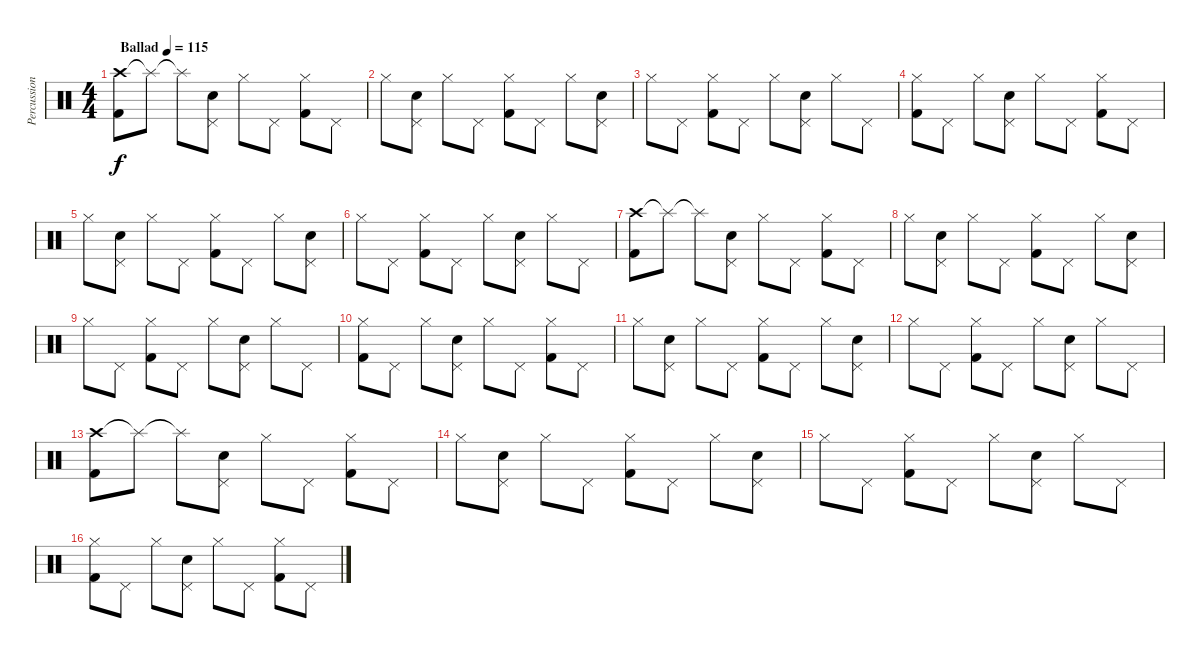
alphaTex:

\track ("Percussion" "Percussion") {instrument percussion}
\staff {score}
\articulation defaults
\ts (4 4)
\tempo (115 "Ballad")
\clef neutral
\ks c
("Crash high (hit)" "Kick (hit) 2").8{dy f} "Splash (hit)"{t}.8 "Splash (hit)"{t}.8 ("Pedal Hi-Hat (hit)" "Electric Snare (hit)").8 "Hi-Hat (closed)".8 "Pedal Hi-Hat (hit)".8 ("Hi-Hat (closed)" "Kick (hit) 2").8 "Pedal Hi-Hat (hit)".8 |
"Hi-Hat (closed)".8 ("Pedal Hi-Hat (hit)" "Electric Snare (hit)").8 "Hi-Hat (closed)".8 "Pedal Hi-Hat (hit)".8 ("Hi-Hat (closed)" "Kick (hit) 2").8 "Pedal Hi-Hat (hit)".8 "Hi-Hat (closed)".8 ("Pedal Hi-Hat (hit)" "Electric Snare (hit)").8 |
"Hi-Hat (closed)".8 "Pedal Hi-Hat (hit)".8 ("Hi-Hat (closed)" "Kick (hit) 2").8 "Pedal Hi-Hat (hit)".8 "Hi-Hat (closed)".8 ("Pedal Hi-Hat (hit)" "Electric Snare (hit)").8 "Hi-Hat (closed)".8 "Pedal Hi-Hat (hit)".8 |
("Hi-Hat (closed)" "Kick (hit) 2").8 "Pedal Hi-Hat (hit)".8 "Hi-Hat (closed)".8 ("Pedal Hi-Hat (hit)" "Electric Snare (hit)").8 "Hi-Hat (closed)".8 "Pedal Hi-Hat (hit)".8 ("Hi-Hat (closed)" "Kick (hit) 2").8 "Pedal Hi-Hat (hit)".8 |
"Hi-Hat (closed)".8 ("Pedal Hi-Hat (hit)" "Electric Snare (hit)").8 "Hi-Hat (closed)".8 "Pedal Hi-Hat (hit)".8 ("Hi-Hat (closed)" "Kick (hit) 2").8 "Pedal Hi-Hat (hit)".8 "Hi-Hat (closed)".8 ("Pedal Hi-Hat (hit)" "Electric Snare (hit)").8 |
"Hi-Hat (closed)".8 "Pedal Hi-Hat (hit)".8 ("Hi-Hat (closed)" "Kick (hit) 2").8 "Pedal Hi-Hat (hit)".8 "Hi-Hat (closed)".8 ("Pedal Hi-Hat (hit)" "Electric Snare (hit)").8 "Hi-Hat (closed)".8 "Pedal Hi-Hat (hit)".8 |
("Crash high (hit)" "Kick (hit) 2").8 "Splash (hit)"{t}.8 "Splash (hit)"{t}.8 ("Pedal Hi-Hat (hit)" "Electric Snare (hit)").8 "Hi-Hat (closed)".8 "Pedal Hi-Hat (hit)".8 ("Hi-Hat (closed)" "Kick (hit) 2").8 "Pedal Hi-Hat (hit)".8 |
"Hi-Hat (closed)".8 ("Pedal Hi-Hat (hit)" "Electric Snare (hit)").8 "Hi-Hat (closed)".8 "Pedal Hi-Hat (hit)".8 ("Hi-Hat (closed)" "Kick (hit) 2").8 "Pedal Hi-Hat (hit)".8 "Hi-Hat (closed)".8 ("Pedal Hi-Hat (hit)" "Electric Snare (hit)").8 |
"Hi-Hat (closed)".8 "Pedal Hi-Hat (hit)".8 ("Hi-Hat (closed)" "Kick (hit) 2").8 "Pedal Hi-Hat (hit)".8 "Hi-Hat (closed)".8 ("Pedal Hi-Hat (hit)" "Electric Snare (hit)").8 "Hi-Hat (closed)".8 "Pedal Hi-Hat (hit)".8 |
("Hi-Hat (closed)" "Kick (hit) 2").8 "Pedal Hi-Hat (hit)".8 "Hi-Hat (closed)".8 ("Pedal Hi-Hat (hit)" "Electric Snare (hit)").8 "Hi-Hat (closed)".8 "Pedal Hi-Hat (hit)".8 ("Hi-Hat (closed)" "Kick (hit) 2").8 "Pedal Hi-Hat (hit)".8 |
"Hi-Hat (closed)".8 ("Pedal Hi-Hat (hit)" "Electric Snare (hit)").8 "Hi-Hat (closed)".8 "Pedal Hi-Hat (hit)".8 ("Hi-Hat (closed)" "Kick (hit) 2").8 "Pedal Hi-Hat (hit)".8 "Hi-Hat (closed)".8 ("Pedal Hi-Hat (hit)" "Electric Snare (hit)").8 |
"Hi-Hat (closed)".8 "Pedal Hi-Hat (hit)".8 ("Hi-Hat (closed)" "Kick (hit) 2").8 "Pedal Hi-Hat (hit)".8 "Hi-Hat (closed)".8 ("Pedal Hi-Hat (hit)" "Electric Snare (hit)").8 "Hi-Hat (closed)".8 "Pedal Hi-Hat (hit)".8 |
("Crash high (hit)" "Kick (hit) 2").8 "Splash (hit)"{t}.8 "Splash (hit)"{t}.8 ("Pedal Hi-Hat (hit)" "Electric Snare (hit)").8 "Hi-Hat (closed)".8 "Pedal Hi-Hat (hit)".8 ("Hi-Hat (closed)" "Kick (hit) 2").8 "Pedal Hi-Hat (hit)".8 |
"Hi-Hat (closed)".8 ("Pedal Hi-Hat (hit)" "Electric Snare (hit)").8 "Hi-Hat (closed)".8 "Pedal Hi-Hat (hit)".8 ("Hi-Hat (closed)" "Kick (hit) 2").8 "Pedal Hi-Hat (hit)".8 "Hi-Hat (closed)".8 ("Pedal Hi-Hat (hit)" "Electric Snare (hit)").8 |
"Hi-Hat (closed)".8 "Pedal Hi-Hat (hit)".8 ("Hi-Hat (closed)" "Kick (hit) 2").8 "Pedal Hi-Hat (hit)".8 "Hi-Hat (closed)".8 ("Pedal Hi-Hat (hit)" "Electric Snare (hit)").8 "Hi-Hat (closed)".8 "Pedal Hi-Hat (hit)".8 |
("Hi-Hat (closed)" "Kick (hit) 2").8 "Pedal Hi-Hat (hit)".8 "Hi-Hat (closed)".8 ("Pedal Hi-Hat (hit)" "Electric Snare (hit)").8 "Hi-Hat (closed)".8 "Pedal Hi-Hat (hit)".8 ("Hi-Hat (closed)" "Kick (hit) 2").8 "Pedal Hi-Hat (hit)".8
